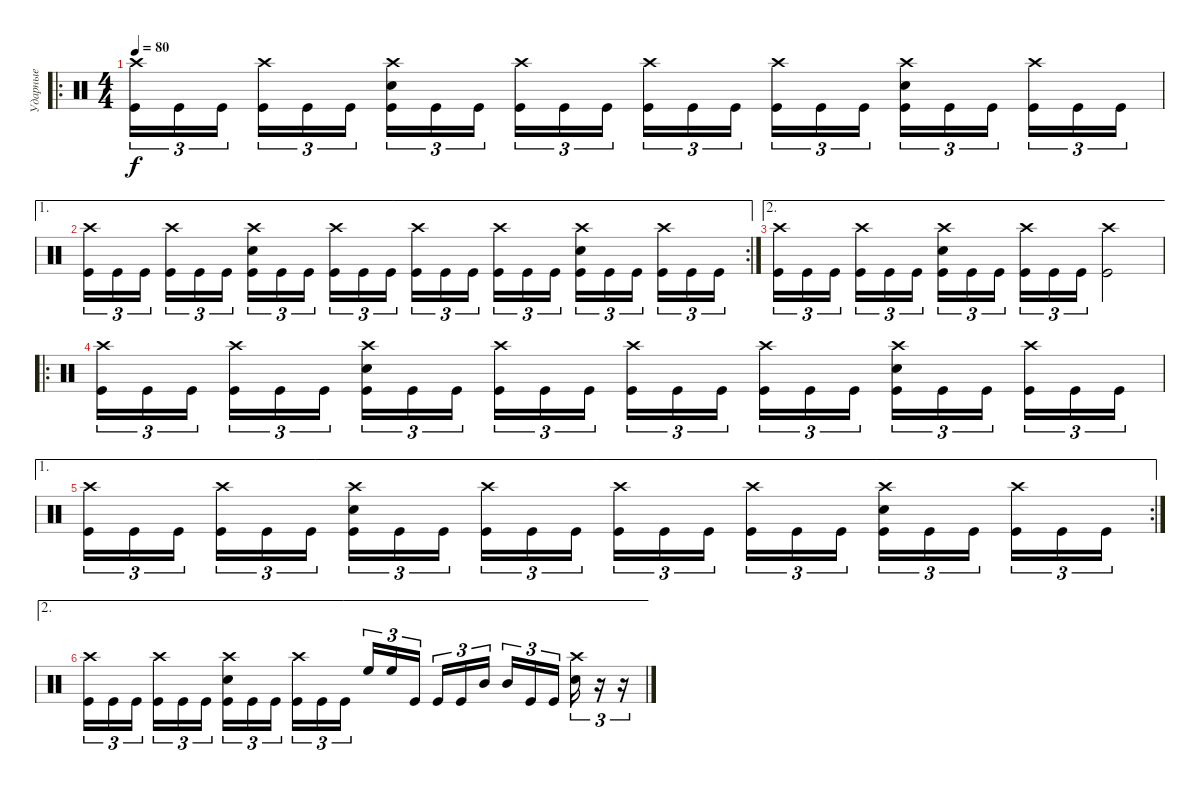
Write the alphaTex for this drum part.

\track ("Ударные" "Ударные") {instrument percussion}
\staff {score}
\articulation defaults
\ro
\ts (4 4)
\tempo 80
\clef neutral
\ks c
("Crash high (hit)" "Kick (hit)").16{tu (3 2) dy f} "Kick (hit)".16{tu (3 2)} "Kick (hit)".16{tu (3 2) beam splitsecondary} ("Crash high (hit)" "Kick (hit)").16{tu (3 2)} "Kick (hit)".16{tu (3 2)} "Kick (hit)".16{tu (3 2)} ("Crash high (hit)" "Snare (hit) 2" "Kick (hit)").16{tu (3 2)} "Kick (hit)".16{tu (3 2)} "Kick (hit)".16{tu (3 2) beam splitsecondary} ("Crash high (hit)" "Kick (hit)").16{tu (3 2)} "Kick (hit)".16{tu (3 2)} "Kick (hit)".16{tu (3 2)} ("Crash high (hit)" "Kick (hit)").16{tu (3 2)} "Kick (hit)".16{tu (3 2)} "Kick (hit)".16{tu (3 2) beam splitsecondary} ("Crash high (hit)" "Kick (hit)").16{tu (3 2)} "Kick (hit)".16{tu (3 2)} "Kick (hit)".16{tu (3 2)} ("Crash high (hit)" "Snare (hit) 2" "Kick (hit)").16{tu (3 2)} "Kick (hit)".16{tu (3 2)} "Kick (hit)".16{tu (3 2) beam splitsecondary} ("Crash high (hit)" "Kick (hit)").16{tu (3 2)} "Kick (hit)".16{tu (3 2)} "Kick (hit)".16{tu (3 2)} |
\ae 1
\rc 2
("Crash high (hit)" "Kick (hit)").16{tu (3 2)} "Kick (hit)".16{tu (3 2)} "Kick (hit)".16{tu (3 2) beam splitsecondary} ("Crash high (hit)" "Kick (hit)").16{tu (3 2)} "Kick (hit)".16{tu (3 2)} "Kick (hit)".16{tu (3 2)} ("Crash high (hit)" "Snare (hit) 2" "Kick (hit)").16{tu (3 2)} "Kick (hit)".16{tu (3 2)} "Kick (hit)".16{tu (3 2) beam splitsecondary} ("Crash high (hit)" "Kick (hit)").16{tu (3 2)} "Kick (hit)".16{tu (3 2)} "Kick (hit)".16{tu (3 2)} ("Crash high (hit)" "Kick (hit)").16{tu (3 2)} "Kick (hit)".16{tu (3 2)} "Kick (hit)".16{tu (3 2) beam splitsecondary} ("Crash high (hit)" "Kick (hit)").16{tu (3 2)} "Kick (hit)".16{tu (3 2)} "Kick (hit)".16{tu (3 2)} ("Crash high (hit)" "Snare (hit) 2" "Kick (hit)").16{tu (3 2)} "Kick (hit)".16{tu (3 2)} "Kick (hit)".16{tu (3 2) beam splitsecondary} ("Crash high (hit)" "Kick (hit)").16{tu (3 2)} "Kick (hit)".16{tu (3 2)} "Kick (hit)".16{tu (3 2)} |
\ae 2
("Crash high (hit)" "Kick (hit)").16{tu (3 2)} "Kick (hit)".16{tu (3 2)} "Kick (hit)".16{tu (3 2) beam splitsecondary} ("Crash high (hit)" "Kick (hit)").16{tu (3 2)} "Kick (hit)".16{tu (3 2)} "Kick (hit)".16{tu (3 2)} ("Crash high (hit)" "Snare (hit) 2" "Kick (hit)").16{tu (3 2)} "Kick (hit)".16{tu (3 2)} "Kick (hit)".16{tu (3 2) beam splitsecondary} ("Crash high (hit)" "Kick (hit)").16{tu (3 2)} "Kick (hit)".16{tu (3 2)} "Kick (hit)".16{tu (3 2)} ("Kick (hit)" "Crash high (hit)").2 |
\ro
("Crash high (hit)" "Kick (hit)").16{tu (3 2)} "Kick (hit)".16{tu (3 2)} "Kick (hit)".16{tu (3 2) beam splitsecondary} ("Crash high (hit)" "Kick (hit)").16{tu (3 2)} "Kick (hit)".16{tu (3 2)} "Kick (hit)".16{tu (3 2)} ("Crash high (hit)" "Snare (hit) 2" "Kick (hit)").16{tu (3 2)} "Kick (hit)".16{tu (3 2)} "Kick (hit)".16{tu (3 2) beam splitsecondary} ("Crash high (hit)" "Kick (hit)").16{tu (3 2)} "Kick (hit)".16{tu (3 2)} "Kick (hit)".16{tu (3 2)} ("Crash high (hit)" "Kick (hit)").16{tu (3 2)} "Kick (hit)".16{tu (3 2)} "Kick (hit)".16{tu (3 2) beam splitsecondary} ("Crash high (hit)" "Kick (hit)").16{tu (3 2)} "Kick (hit)".16{tu (3 2)} "Kick (hit)".16{tu (3 2)} ("Crash high (hit)" "Snare (hit) 2" "Kick (hit)").16{tu (3 2)} "Kick (hit)".16{tu (3 2)} "Kick (hit)".16{tu (3 2) beam splitsecondary} ("Crash high (hit)" "Kick (hit)").16{tu (3 2)} "Kick (hit)".16{tu (3 2)} "Kick (hit)".16{tu (3 2)} |
\ae 1
\rc 2
("Crash high (hit)" "Kick (hit)").16{tu (3 2)} "Kick (hit)".16{tu (3 2)} "Kick (hit)".16{tu (3 2) beam splitsecondary} ("Crash high (hit)" "Kick (hit)").16{tu (3 2)} "Kick (hit)".16{tu (3 2)} "Kick (hit)".16{tu (3 2)} ("Crash high (hit)" "Snare (hit) 2" "Kick (hit)").16{tu (3 2)} "Kick (hit)".16{tu (3 2)} "Kick (hit)".16{tu (3 2) beam splitsecondary} ("Crash high (hit)" "Kick (hit)").16{tu (3 2)} "Kick (hit)".16{tu (3 2)} "Kick (hit)".16{tu (3 2)} ("Crash high (hit)" "Kick (hit)").16{tu (3 2)} "Kick (hit)".16{tu (3 2)} "Kick (hit)".16{tu (3 2) beam splitsecondary} ("Crash high (hit)" "Kick (hit)").16{tu (3 2)} "Kick (hit)".16{tu (3 2)} "Kick (hit)".16{tu (3 2)} ("Crash high (hit)" "Snare (hit) 2" "Kick (hit)").16{tu (3 2)} "Kick (hit)".16{tu (3 2)} "Kick (hit)".16{tu (3 2) beam splitsecondary} ("Crash high (hit)" "Kick (hit)").16{tu (3 2)} "Kick (hit)".16{tu (3 2)} "Kick (hit)".16{tu (3 2)} |
\ae 2
("Crash high (hit)" "Kick (hit)").16{tu (3 2)} "Kick (hit)".16{tu (3 2)} "Kick (hit)".16{tu (3 2) beam splitsecondary} ("Crash high (hit)" "Kick (hit)").16{tu (3 2)} "Kick (hit)".16{tu (3 2)} "Kick (hit)".16{tu (3 2)} ("Crash high (hit)" "Snare (hit) 2" "Kick (hit)").16{tu (3 2)} "Kick (hit)".16{tu (3 2)} "Kick (hit)".16{tu (3 2) beam splitsecondary} ("Crash high (hit)" "Kick (hit)").16{tu (3 2)} "Kick (hit)".16{tu (3 2)} "Kick (hit)".16{tu (3 2)} "High Floor Tom (hit)".16{tu (3 2)} "High Floor Tom (hit)".16{tu (3 2)} "Kick (hit)".16{tu (3 2) beam splitsecondary} "Kick (hit)".16{tu (3 2)} "Kick (hit)".16{tu (3 2)} "Mid Tom (hit)".16{tu (3 2)} "Mid Tom (hit)".16{tu (3 2)} "Kick (hit)".16{tu (3 2)} "Kick (hit)".16{tu (3 2) beam splitsecondary} ("Crash high (hit)" "Snare (hit) 2").16{tu (3 2)} r.16{tu (3 2)} r.16{tu (3 2)}
